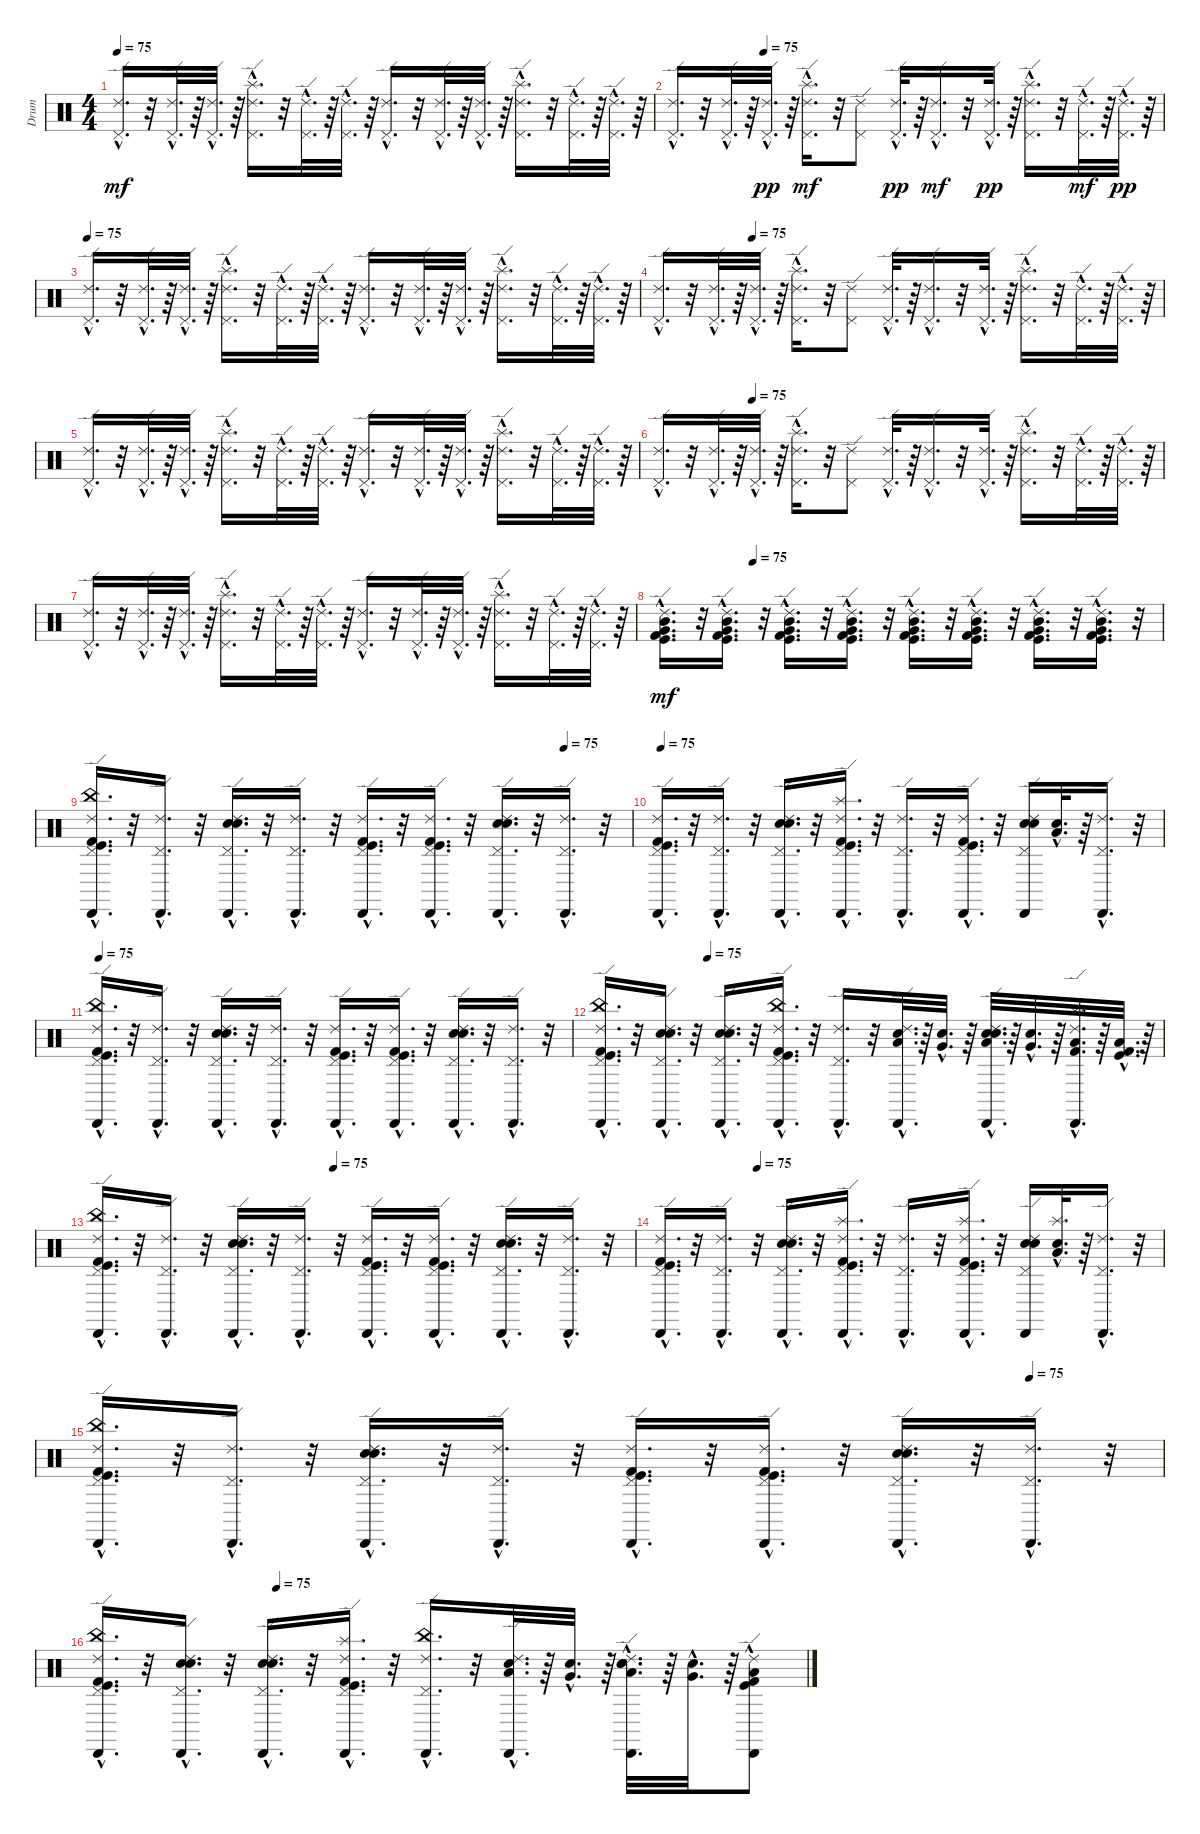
\track ("Drum" "Drum") {instrument percussion}
\staff {score}
\articulation defaults
\ts (4 4)
\tempo 75
\clef neutral
\ks c
("Pedal Hi-Hat (hit)"{hac} "Ride (edge) 2"{hac}).16{d dy mf} r.32 ("Pedal Hi-Hat (hit)"{hac} "Ride (edge) 2"{hac}).32{d} r.64 ("Pedal Hi-Hat (hit)"{hac} "Ride (edge) 2"{hac}).32{d} r.64 ("Splash (hit)"{hac} "Pedal Hi-Hat (hit)"{hac} "Ride (edge) 2"{hac}).16{d} r.32 ("Pedal Hi-Hat (hit)"{hac} "Ride (edge) 2"{hac}).32{d} r.64 ("Pedal Hi-Hat (hit)"{hac} "Ride (edge) 2"{hac}).32{d} r.64 ("Pedal Hi-Hat (hit)"{hac} "Ride (edge) 2"{hac}).16{d} r.32 ("Pedal Hi-Hat (hit)"{hac} "Ride (edge) 2"{hac}).32{d} r.64 ("Pedal Hi-Hat (hit)"{hac} "Ride (edge) 2"{hac}).32{d} r.64 ("Splash (hit)"{hac} "Pedal Hi-Hat (hit)"{hac} "Ride (edge) 2"{hac}).16{d} r.32 ("Pedal Hi-Hat (hit)"{hac} "Ride (edge) 2"{hac}).32{d} r.64 ("Pedal Hi-Hat (hit)"{hac} "Ride (edge) 2"{hac}).32{d} r.64 |
\tempo (75 0.1875)
("Pedal Hi-Hat (hit)"{hac} "Ride (edge) 2"{hac}).16{d} r.32 ("Pedal Hi-Hat (hit)"{hac} "Ride (edge) 2"{hac}).32{d} r.64 ("Ride (edge) 2"{hac} "Pedal Hi-Hat (hit)"{hac}).32{d dy pp} r.64 ("Splash (hit)"{hac} "Pedal Hi-Hat (hit)"{hac} "Ride (edge) 2"{hac}).16{d dy mf} r.32 ("Pedal Hi-Hat (hit)" "Ride (edge) 2").8 ("Ride (edge) 2"{hac} "Pedal Hi-Hat (hit)"{hac}).32{d dy pp} r.64 ("Pedal Hi-Hat (hit)"{hac} "Ride (edge) 2"{hac}).16{d dy mf} r.32 ("Ride (edge) 2"{hac} "Pedal Hi-Hat (hit)"{hac}).32{d dy pp} r.64 ("Pedal Hi-Hat (hit)"{hac} "Ride (edge) 2"{hac} "Splash (hit)"{hac}).16{d} r.32 ("Pedal Hi-Hat (hit)"{hac} "Ride (edge) 2"{hac}).32{d dy mf} r.64 ("Ride (edge) 2"{hac} "Pedal Hi-Hat (hit)"{hac}).32{d dy pp} r.64 |
\tempo 75
("Ride (edge) 2"{hac} "Pedal Hi-Hat (hit)"{hac}).16{d} r.32 ("Ride (edge) 2"{hac} "Pedal Hi-Hat (hit)"{hac}).32{d} r.64 ("Ride (edge) 2"{hac} "Pedal Hi-Hat (hit)"{hac}).32{d} r.64 ("Ride (edge) 2"{hac} "Pedal Hi-Hat (hit)"{hac} "Splash (hit)"{hac}).16{d} r.32 ("Ride (edge) 2"{hac} "Pedal Hi-Hat (hit)"{hac}).32{d} r.64 ("Ride (edge) 2"{hac} "Pedal Hi-Hat (hit)"{hac}).32{d} r.64 ("Ride (edge) 2"{hac} "Pedal Hi-Hat (hit)"{hac}).16{d} r.32 ("Ride (edge) 2"{hac} "Pedal Hi-Hat (hit)"{hac}).32{d} r.64 ("Ride (edge) 2"{hac} "Pedal Hi-Hat (hit)"{hac}).32{d} r.64 ("Ride (edge) 2"{hac} "Pedal Hi-Hat (hit)"{hac} "Splash (hit)"{hac}).16{d} r.32 ("Ride (edge) 2"{hac} "Pedal Hi-Hat (hit)"{hac}).32{d} r.64 ("Ride (edge) 2"{hac} "Pedal Hi-Hat (hit)"{hac}).32{d} r.64 |
\tempo (75 0.1875)
("Ride (edge) 2"{hac} "Pedal Hi-Hat (hit)"{hac}).16{d} r.32 ("Ride (edge) 2"{hac} "Pedal Hi-Hat (hit)"{hac}).32{d} r.64 ("Ride (edge) 2"{hac} "Pedal Hi-Hat (hit)"{hac}).32{d} r.64 ("Ride (edge) 2"{hac} "Pedal Hi-Hat (hit)"{hac} "Splash (hit)"{hac}).16{d} r.32 ("Ride (edge) 2" "Pedal Hi-Hat (hit)").8 ("Ride (edge) 2"{hac} "Pedal Hi-Hat (hit)"{hac}).32{d} r.64 ("Ride (edge) 2"{hac} "Pedal Hi-Hat (hit)"{hac}).16{d} r.32 ("Ride (edge) 2"{hac} "Pedal Hi-Hat (hit)"{hac}).32{d} r.64 ("Ride (edge) 2"{hac} "Pedal Hi-Hat (hit)"{hac} "Splash (hit)"{hac}).16{d} r.32 ("Ride (edge) 2"{hac} "Pedal Hi-Hat (hit)"{hac}).32{d} r.64 ("Ride (edge) 2"{hac} "Pedal Hi-Hat (hit)"{hac}).32{d} r.64 |
("Ride (edge) 2"{hac} "Pedal Hi-Hat (hit)"{hac}).16{d} r.32 ("Ride (edge) 2"{hac} "Pedal Hi-Hat (hit)"{hac}).32{d} r.64 ("Ride (edge) 2"{hac} "Pedal Hi-Hat (hit)"{hac}).32{d} r.64 ("Ride (edge) 2"{hac} "Pedal Hi-Hat (hit)"{hac} "Splash (hit)"{hac}).16{d} r.32 ("Ride (edge) 2"{hac} "Pedal Hi-Hat (hit)"{hac}).32{d} r.64 ("Ride (edge) 2"{hac} "Pedal Hi-Hat (hit)"{hac}).32{d} r.64 ("Ride (edge) 2"{hac} "Pedal Hi-Hat (hit)"{hac}).16{d} r.32 ("Ride (edge) 2"{hac} "Pedal Hi-Hat (hit)"{hac}).32{d} r.64 ("Ride (edge) 2"{hac} "Pedal Hi-Hat (hit)"{hac}).32{d} r.64 ("Ride (edge) 2"{hac} "Pedal Hi-Hat (hit)"{hac} "Splash (hit)"{hac}).16{d} r.32 ("Ride (edge) 2"{hac} "Pedal Hi-Hat (hit)"{hac}).32{d} r.64 ("Ride (edge) 2"{hac} "Pedal Hi-Hat (hit)"{hac}).32{d} r.64 |
\tempo (75 0.1875)
("Ride (edge) 2"{hac} "Pedal Hi-Hat (hit)"{hac}).16{d} r.32 ("Ride (edge) 2"{hac} "Pedal Hi-Hat (hit)"{hac}).32{d} r.64 ("Ride (edge) 2"{hac} "Pedal Hi-Hat (hit)"{hac}).32{d} r.64 ("Ride (edge) 2"{hac} "Pedal Hi-Hat (hit)"{hac} "Splash (hit)"{hac}).16{d} r.32 ("Ride (edge) 2" "Pedal Hi-Hat (hit)").8 ("Ride (edge) 2"{hac} "Pedal Hi-Hat (hit)"{hac}).32{d} r.64 ("Ride (edge) 2"{hac} "Pedal Hi-Hat (hit)"{hac}).16{d} r.32 ("Ride (edge) 2"{hac} "Pedal Hi-Hat (hit)"{hac}).32{d} r.64 ("Ride (edge) 2"{hac} "Pedal Hi-Hat (hit)"{hac} "Splash (hit)"{hac}).16{d} r.32 ("Ride (edge) 2"{hac} "Pedal Hi-Hat (hit)"{hac}).32{d} r.64 ("Ride (edge) 2"{hac} "Pedal Hi-Hat (hit)"{hac}).32{d} r.64 |
("Ride (edge) 2"{hac} "Pedal Hi-Hat (hit)"{hac}).16{d} r.32 ("Ride (edge) 2"{hac} "Pedal Hi-Hat (hit)"{hac}).32{d} r.64 ("Ride (edge) 2"{hac} "Pedal Hi-Hat (hit)"{hac}).32{d} r.64 ("Ride (edge) 2"{hac} "Pedal Hi-Hat (hit)"{hac} "Splash (hit)"{hac}).16{d} r.32 ("Ride (edge) 2"{hac} "Pedal Hi-Hat (hit)"{hac}).32{d} r.64 ("Ride (edge) 2"{hac} "Pedal Hi-Hat (hit)"{hac}).32{d} r.64 ("Ride (edge) 2"{hac} "Pedal Hi-Hat (hit)"{hac}).16{d} r.32 ("Ride (edge) 2"{hac} "Pedal Hi-Hat (hit)"{hac}).32{d} r.64 ("Ride (edge) 2"{hac} "Pedal Hi-Hat (hit)"{hac}).32{d} r.64 ("Ride (edge) 2"{hac} "Pedal Hi-Hat (hit)"{hac} "Splash (hit)"{hac}).16{d} r.32 ("Ride (edge) 2"{hac} "Pedal Hi-Hat (hit)"{hac}).32{d} r.64 ("Ride (edge) 2"{hac} "Pedal Hi-Hat (hit)"{hac}).32{d} r.64 |
\tempo (75 0.1875)
("Ride (edge) 2"{hac} "Kick (hit) 2"{hac} "Kick (hit)"{hac} "Very Low Tom (hit)"{hac} "Mid Tom (hit)"{hac}).16{d dy mf} r.32 ("Ride (edge) 2"{hac} "Kick (hit) 2"{hac} "Kick (hit)"{hac} "Very Low Tom (hit)"{hac} "Mid Tom (hit)"{hac}).16{d} r.32 ("Ride (edge) 2"{hac} "Kick (hit) 2"{hac} "Kick (hit)"{hac} "Very Low Tom (hit)"{hac} "Mid Tom (hit)"{hac}).16{d} r.32 ("Ride (edge) 2"{hac} "Kick (hit) 2"{hac} "Kick (hit)"{hac} "Very Low Tom (hit)"{hac} "Mid Tom (hit)"{hac}).16{d} r.32 ("Ride (edge) 2"{hac} "Kick (hit) 2"{hac} "Kick (hit)"{hac} "Very Low Tom (hit)"{hac} "Mid Tom (hit)"{hac}).16{d} r.32 ("Ride (edge) 2"{hac} "Kick (hit) 2"{hac} "Kick (hit)"{hac} "Very Low Tom (hit)"{hac} "Mid Tom (hit)"{hac}).16{d} r.32 ("Ride (edge) 2"{hac} "Kick (hit) 2"{hac} "Kick (hit)"{hac} "Very Low Tom (hit)"{hac} "Mid Tom (hit)"{hac}).16{d} r.32 ("Ride (edge) 2"{hac} "Kick (hit) 2"{hac} "Kick (hit)"{hac} "Very Low Tom (hit)"{hac} "Mid Tom (hit)"{hac}).16{d} r.32 |
\tempo (75 0.875)
("China (hit)"{hac} "Kick (hit) 2"{hac} "Kick (hit)"{hac} "Pedal Hi-Hat (hit)"{hac} "Cabasa (hit)"{hac} "Ride (edge) 2"{hac}).16{d} r.32 ("Pedal Hi-Hat (hit)"{hac} "Cabasa (hit)"{hac} "Ride (edge) 2"{hac}).16{d} r.32 ("Electric Snare (hit)"{hac} "Snare (hit) 2"{hac} "Pedal Hi-Hat (hit)"{hac} "Cabasa (hit)"{hac} "Ride (edge) 2"{hac}).16{d} r.32 ("Pedal Hi-Hat (hit)"{hac} "Cabasa (hit)"{hac} "Ride (edge) 2"{hac}).16{d} r.32 ("Kick (hit) 2"{hac} "Kick (hit)"{hac} "Pedal Hi-Hat (hit)"{hac} "Cabasa (hit)"{hac} "Ride (edge) 2"{hac}).16{d} r.32 ("Kick (hit) 2"{hac} "Kick (hit)"{hac} "Pedal Hi-Hat (hit)"{hac} "Cabasa (hit)"{hac} "Ride (edge) 2"{hac}).16{d} r.32 ("Electric Snare (hit)"{hac} "Snare (hit) 2"{hac} "Pedal Hi-Hat (hit)"{hac} "Cabasa (hit)"{hac} "Ride (edge) 2"{hac}).16{d} r.32 ("Pedal Hi-Hat (hit)"{hac} "Cabasa (hit)"{hac} "Ride (edge) 2"{hac}).16{d} r.32 |
\tempo 75
("Ride (edge) 2"{hac} "Cabasa (hit)"{hac} "Pedal Hi-Hat (hit)"{hac} "Kick (hit)"{hac} "Kick (hit) 2"{hac}).16{d} r.32 ("Ride (edge) 2"{hac} "Cabasa (hit)"{hac} "Pedal Hi-Hat (hit)"{hac}).16{d} r.32 ("Ride (edge) 2"{hac} "Cabasa (hit)"{hac} "Pedal Hi-Hat (hit)"{hac} "Snare (hit) 2"{hac} "Electric Snare (hit)"{hac}).16{d} r.32 ("Splash (hit)"{hac} "Kick (hit)"{hac} "Kick (hit) 2"{hac} "Ride (edge) 2"{hac} "Cabasa (hit)"{hac} "Pedal Hi-Hat (hit)"{hac}).16{d} r.32 ("Ride (edge) 2"{hac} "Cabasa (hit)"{hac} "Pedal Hi-Hat (hit)"{hac}).16{d} r.32 ("Ride (edge) 2"{hac} "Cabasa (hit)"{hac} "Pedal Hi-Hat (hit)"{hac} "Kick (hit)"{hac} "Kick (hit) 2"{hac}).16{d} r.32 ("Ride (edge) 2" "Cabasa (hit)" "Pedal Hi-Hat (hit)" "Snare (hit) 2" "Electric Snare (hit)").16 ("Low Tom (hit)"{hac} "Electric Snare (hit)"{hac}).32{d} r.64 ("Cabasa (hit)"{hac} "Ride (edge) 2"{hac} "Pedal Hi-Hat (hit)"{hac}).16{d} r.32 |
\tempo 75
("Ride (edge) 2"{hac} "Cabasa (hit)"{hac} "Pedal Hi-Hat (hit)"{hac} "Kick (hit)"{hac} "Kick (hit) 2"{hac} "China (hit)"{hac}).16{d} r.32 ("Ride (edge) 2"{hac} "Cabasa (hit)"{hac} "Pedal Hi-Hat (hit)"{hac}).16{d} r.32 ("Ride (edge) 2"{hac} "Cabasa (hit)"{hac} "Pedal Hi-Hat (hit)"{hac} "Snare (hit) 2"{hac} "Electric Snare (hit)"{hac}).16{d} r.32 ("Ride (edge) 2"{hac} "Cabasa (hit)"{hac} "Pedal Hi-Hat (hit)"{hac}).16{d} r.32 ("Ride (edge) 2"{hac} "Cabasa (hit)"{hac} "Pedal Hi-Hat (hit)"{hac} "Kick (hit)"{hac} "Kick (hit) 2"{hac}).16{d} r.32 ("Ride (edge) 2"{hac} "Cabasa (hit)"{hac} "Pedal Hi-Hat (hit)"{hac} "Kick (hit)"{hac} "Kick (hit) 2"{hac}).16{d} r.32 ("Ride (edge) 2"{hac} "Cabasa (hit)"{hac} "Pedal Hi-Hat (hit)"{hac} "Snare (hit) 2"{hac} "Electric Snare (hit)"{hac}).16{d} r.32 ("Ride (edge) 2"{hac} "Cabasa (hit)"{hac} "Pedal Hi-Hat (hit)"{hac}).16{d} r.32 |
\tempo (75 0.1875)
("China (hit)"{hac} "Kick (hit) 2"{hac} "Kick (hit)"{hac} "Pedal Hi-Hat (hit)"{hac} "Cabasa (hit)"{hac} "Ride (edge) 2"{hac}).16{d} r.32 ("Snare (hit) 2"{hac} "Electric Snare (hit)"{hac} "Pedal Hi-Hat (hit)"{hac} "Cabasa (hit)"{hac} "Ride (edge) 2"{hac}).16{d} r.32 ("Electric Snare (hit)"{hac} "Snare (hit) 2"{hac} "Pedal Hi-Hat (hit)"{hac} "Cabasa (hit)"{hac} "Ride (edge) 2"{hac}).16{d} r.32 ("China (hit)"{hac} "Pedal Hi-Hat (hit)"{hac} "Cabasa (hit)"{hac} "Ride (edge) 2"{hac} "Kick (hit) 2"{hac} "Kick (hit)"{hac}).16{d} r.32 ("Pedal Hi-Hat (hit)"{hac} "Cabasa (hit)"{hac} "Ride (edge) 2"{hac}).16{d} r.32 ("Low Tom (hit)"{hac} "Cabasa (hit)"{hac} "Ride (edge) 2"{hac} "Electric Snare (hit)"{hac}).32{d} r.64 ("Very Low Tom (hit)"{hac} "Snare (hit) 2"{hac}).32{d} r.64 ("Snare (hit) 2"{hac} "Low Tom (hit)"{hac} "Cabasa (hit)"{hac} "Ride (edge) 2"{hac} "Electric Snare (hit)"{hac}).32{d} r.64 ("Very Low Tom (hit)"{hac} "Snare (hit) 2"{hac}).32{d} r.64 ("Splash (hit)"{hac} "Low Floor Tom (hit)"{hac} "Cabasa (hit)"{hac} "Ride (edge) 2"{hac} "Kick (hit) 2"{hac}).32{d} r.64 ("Kick (hit) 2"{hac} "Low Floor Tom (hit)"{hac} "Kick (hit)"{hac}).32{d} r.64 |
\tempo (75 0.4375)
("Ride (edge) 2"{hac} "Cabasa (hit)"{hac} "Pedal Hi-Hat (hit)"{hac} "Kick (hit)"{hac} "Kick (hit) 2"{hac} "China (hit)"{hac}).16{d} r.32 ("Ride (edge) 2"{hac} "Cabasa (hit)"{hac} "Pedal Hi-Hat (hit)"{hac}).16{d} r.32 ("Ride (edge) 2"{hac} "Cabasa (hit)"{hac} "Pedal Hi-Hat (hit)"{hac} "Snare (hit) 2"{hac} "Electric Snare (hit)"{hac}).16{d} r.32 ("Ride (edge) 2"{hac} "Cabasa (hit)"{hac} "Pedal Hi-Hat (hit)"{hac}).16{d} r.32 ("Ride (edge) 2"{hac} "Cabasa (hit)"{hac} "Pedal Hi-Hat (hit)"{hac} "Kick (hit)"{hac} "Kick (hit) 2"{hac}).16{d} r.32 ("Ride (edge) 2"{hac} "Cabasa (hit)"{hac} "Pedal Hi-Hat (hit)"{hac} "Kick (hit)"{hac} "Kick (hit) 2"{hac}).16{d} r.32 ("Ride (edge) 2"{hac} "Cabasa (hit)"{hac} "Pedal Hi-Hat (hit)"{hac} "Snare (hit) 2"{hac} "Electric Snare (hit)"{hac}).16{d} r.32 ("Ride (edge) 2"{hac} "Cabasa (hit)"{hac} "Pedal Hi-Hat (hit)"{hac}).16{d} r.32 |
\tempo (75 0.1875)
("Kick (hit) 2"{hac} "Kick (hit)"{hac} "Pedal Hi-Hat (hit)"{hac} "Cabasa (hit)"{hac} "Ride (edge) 2"{hac}).16{d} r.32 ("Pedal Hi-Hat (hit)"{hac} "Cabasa (hit)"{hac} "Ride (edge) 2"{hac}).16{d} r.32 ("Electric Snare (hit)"{hac} "Snare (hit) 2"{hac} "Pedal Hi-Hat (hit)"{hac} "Cabasa (hit)"{hac} "Ride (edge) 2"{hac}).16{d} r.32 ("Pedal Hi-Hat (hit)"{hac} "Cabasa (hit)"{hac} "Ride (edge) 2"{hac} "Kick (hit) 2"{hac} "Kick (hit)"{hac} "Splash (hit)"{hac}).16{d} r.32 ("Pedal Hi-Hat (hit)"{hac} "Cabasa (hit)"{hac} "Ride (edge) 2"{hac}).16{d} r.32 ("Splash (hit)"{hac} "Kick (hit) 2"{hac} "Kick (hit)"{hac} "Pedal Hi-Hat (hit)"{hac} "Cabasa (hit)"{hac} "Ride (edge) 2"{hac}).16{d} r.32 ("Electric Snare (hit)" "Snare (hit) 2" "Pedal Hi-Hat (hit)" "Cabasa (hit)" "Ride (edge) 2").16 ("Splash (hit)"{hac} "Electric Snare (hit)"{hac} "Low Tom (hit)"{hac}).32{d} r.64 ("Pedal Hi-Hat (hit)"{hac} "Ride (edge) 2"{hac} "Cabasa (hit)"{hac}).16{d} r.32 |
\tempo (75 0.875)
("China (hit)"{hac} "Kick (hit) 2"{hac} "Kick (hit)"{hac} "Pedal Hi-Hat (hit)"{hac} "Cabasa (hit)"{hac} "Ride (edge) 2"{hac}).16{d} r.32 ("Pedal Hi-Hat (hit)"{hac} "Cabasa (hit)"{hac} "Ride (edge) 2"{hac}).16{d} r.32 ("Electric Snare (hit)"{hac} "Snare (hit) 2"{hac} "Pedal Hi-Hat (hit)"{hac} "Cabasa (hit)"{hac} "Ride (edge) 2"{hac}).16{d} r.32 ("Pedal Hi-Hat (hit)"{hac} "Cabasa (hit)"{hac} "Ride (edge) 2"{hac}).16{d} r.32 ("Kick (hit) 2"{hac} "Kick (hit)"{hac} "Pedal Hi-Hat (hit)"{hac} "Cabasa (hit)"{hac} "Ride (edge) 2"{hac}).16{d} r.32 ("Kick (hit) 2"{hac} "Kick (hit)"{hac} "Pedal Hi-Hat (hit)"{hac} "Cabasa (hit)"{hac} "Ride (edge) 2"{hac}).16{d} r.32 ("Electric Snare (hit)"{hac} "Snare (hit) 2"{hac} "Pedal Hi-Hat (hit)"{hac} "Cabasa (hit)"{hac} "Ride (edge) 2"{hac}).16{d} r.32 ("Pedal Hi-Hat (hit)"{hac} "Cabasa (hit)"{hac} "Ride (edge) 2"{hac}).16{d} r.32 |
\tempo (75 0.25)
("Ride (edge) 2"{hac} "Cabasa (hit)"{hac} "Pedal Hi-Hat (hit)"{hac} "Kick (hit)"{hac} "Kick (hit) 2"{hac} "China (hit)"{hac}).16{d} r.32 ("Ride (edge) 2"{hac} "Cabasa (hit)"{hac} "Pedal Hi-Hat (hit)"{hac} "Electric Snare (hit)"{hac} "Snare (hit) 2"{hac}).16{d} r.32 ("Ride (edge) 2"{hac} "Cabasa (hit)"{hac} "Pedal Hi-Hat (hit)"{hac} "Snare (hit) 2"{hac} "Electric Snare (hit)"{hac}).16{d} r.32 ("Splash (hit)"{hac} "Kick (hit)"{hac} "Kick (hit) 2"{hac} "Ride (edge) 2"{hac} "Cabasa (hit)"{hac} "Pedal Hi-Hat (hit)"{hac}).16{d} r.32 ("China (hit)"{hac} "Ride (edge) 2"{hac} "Cabasa (hit)"{hac} "Pedal Hi-Hat (hit)"{hac}).16{d} r.32 ("Electric Snare (hit)"{hac} "Ride (edge) 2"{hac} "Cabasa (hit)"{hac} "Low Tom (hit)"{hac}).32{d} r.64 ("Snare (hit) 2"{hac} "Very Low Tom (hit)"{hac}).32{d} r.64 ("Electric Snare (hit)"{hac} "Ride (edge) 2"{hac} "Cabasa (hit)"{hac} "Low Tom (hit)"{hac} "Snare (hit) 2"{hac}).32{d} r.64 ("Snare (hit) 2"{hac} "Very Low Tom (hit)"{hac}).32{d} r.64 ("Kick (hit)" "Kick (hit) 2" "Ride (edge) 2"{hac} "Cabasa (hit)"{hac} "Low Floor Tom (hit)").8
